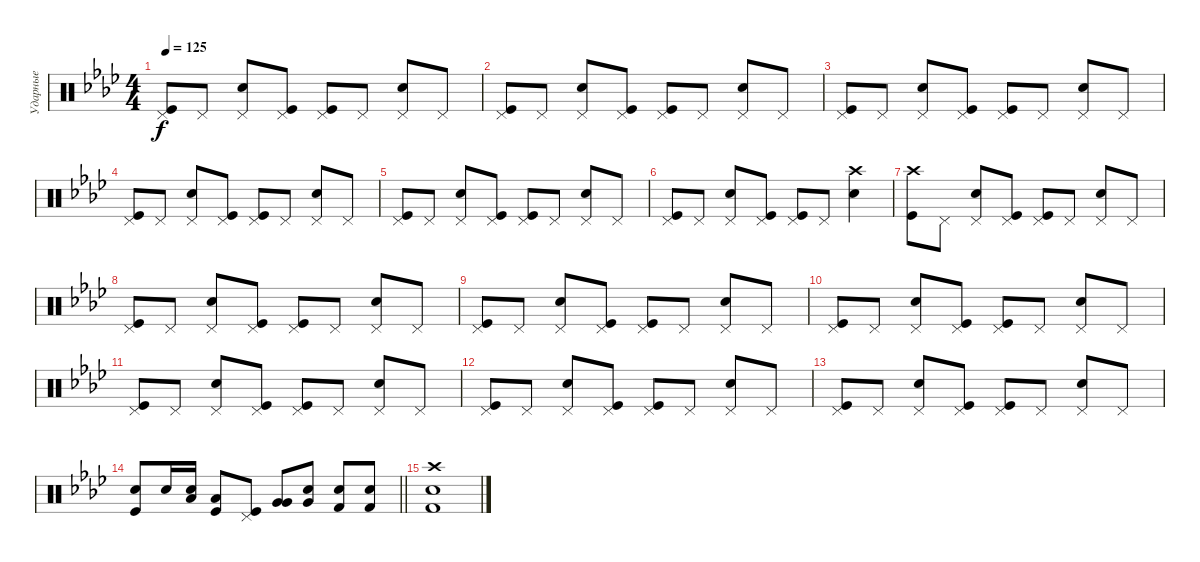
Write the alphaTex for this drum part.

\track ("Ударные" "Ударные") {solo instrument percussion}
\staff {score}
\articulation defaults
\ts (4 4)
\tempo 125
\clef neutral
\ks fminor
("Pedal Hi-Hat (hit)" "Kick (hit)").8{dy f} "Pedal Hi-Hat (hit)".8 ("Pedal Hi-Hat (hit)" "Electric Snare (hit)").8 ("Pedal Hi-Hat (hit)" "Kick (hit)").8 ("Pedal Hi-Hat (hit)" "Kick (hit)").8 "Pedal Hi-Hat (hit)".8 ("Pedal Hi-Hat (hit)" "Electric Snare (hit)").8 "Pedal Hi-Hat (hit)".8 |
("Pedal Hi-Hat (hit)" "Kick (hit)").8 "Pedal Hi-Hat (hit)".8 ("Pedal Hi-Hat (hit)" "Electric Snare (hit)").8 ("Pedal Hi-Hat (hit)" "Kick (hit)").8 ("Pedal Hi-Hat (hit)" "Kick (hit)").8 "Pedal Hi-Hat (hit)".8 ("Pedal Hi-Hat (hit)" "Electric Snare (hit)").8 "Pedal Hi-Hat (hit)".8 |
("Pedal Hi-Hat (hit)" "Kick (hit)").8 "Pedal Hi-Hat (hit)".8 ("Pedal Hi-Hat (hit)" "Electric Snare (hit)").8 ("Pedal Hi-Hat (hit)" "Kick (hit)").8 ("Pedal Hi-Hat (hit)" "Kick (hit)").8 "Pedal Hi-Hat (hit)".8 ("Pedal Hi-Hat (hit)" "Electric Snare (hit)").8 "Pedal Hi-Hat (hit)".8 |
("Pedal Hi-Hat (hit)" "Kick (hit)").8 "Pedal Hi-Hat (hit)".8 ("Pedal Hi-Hat (hit)" "Electric Snare (hit)").8 ("Pedal Hi-Hat (hit)" "Kick (hit)").8 ("Pedal Hi-Hat (hit)" "Kick (hit)").8 "Pedal Hi-Hat (hit)".8 ("Pedal Hi-Hat (hit)" "Electric Snare (hit)").8 "Pedal Hi-Hat (hit)".8 |
("Pedal Hi-Hat (hit)" "Kick (hit)").8 "Pedal Hi-Hat (hit)".8 ("Pedal Hi-Hat (hit)" "Electric Snare (hit)").8 ("Pedal Hi-Hat (hit)" "Kick (hit)").8 ("Pedal Hi-Hat (hit)" "Kick (hit)").8 "Pedal Hi-Hat (hit)".8 ("Pedal Hi-Hat (hit)" "Electric Snare (hit)").8 "Pedal Hi-Hat (hit)".8 |
("Pedal Hi-Hat (hit)" "Kick (hit)").8 "Pedal Hi-Hat (hit)".8 ("Pedal Hi-Hat (hit)" "Electric Snare (hit)").8 ("Pedal Hi-Hat (hit)" "Kick (hit)").8 ("Pedal Hi-Hat (hit)" "Kick (hit)").8 "Pedal Hi-Hat (hit)".8 ("Crash high (hit)" "Electric Snare (hit)").4 |
("Crash high (hit)" "Kick (hit)").8 "Pedal Hi-Hat (hit)".8 ("Pedal Hi-Hat (hit)" "Electric Snare (hit)").8 ("Pedal Hi-Hat (hit)" "Kick (hit)").8 ("Pedal Hi-Hat (hit)" "Kick (hit)").8 "Pedal Hi-Hat (hit)".8 ("Pedal Hi-Hat (hit)" "Electric Snare (hit)").8 "Pedal Hi-Hat (hit)".8 |
("Pedal Hi-Hat (hit)" "Kick (hit)").8 "Pedal Hi-Hat (hit)".8 ("Pedal Hi-Hat (hit)" "Electric Snare (hit)").8 ("Pedal Hi-Hat (hit)" "Kick (hit)").8 ("Pedal Hi-Hat (hit)" "Kick (hit)").8 "Pedal Hi-Hat (hit)".8 ("Pedal Hi-Hat (hit)" "Electric Snare (hit)").8 "Pedal Hi-Hat (hit)".8 |
("Pedal Hi-Hat (hit)" "Kick (hit)").8 "Pedal Hi-Hat (hit)".8 ("Pedal Hi-Hat (hit)" "Electric Snare (hit)").8 ("Pedal Hi-Hat (hit)" "Kick (hit)").8 ("Pedal Hi-Hat (hit)" "Kick (hit)").8 "Pedal Hi-Hat (hit)".8 ("Pedal Hi-Hat (hit)" "Electric Snare (hit)").8 "Pedal Hi-Hat (hit)".8 |
("Pedal Hi-Hat (hit)" "Kick (hit)").8 "Pedal Hi-Hat (hit)".8 ("Pedal Hi-Hat (hit)" "Electric Snare (hit)").8 ("Pedal Hi-Hat (hit)" "Kick (hit)").8 ("Pedal Hi-Hat (hit)" "Kick (hit)").8 "Pedal Hi-Hat (hit)".8 ("Pedal Hi-Hat (hit)" "Electric Snare (hit)").8 "Pedal Hi-Hat (hit)".8 |
("Pedal Hi-Hat (hit)" "Kick (hit)").8 "Pedal Hi-Hat (hit)".8 ("Pedal Hi-Hat (hit)" "Electric Snare (hit)").8 ("Pedal Hi-Hat (hit)" "Kick (hit)").8 ("Pedal Hi-Hat (hit)" "Kick (hit)").8 "Pedal Hi-Hat (hit)".8 ("Pedal Hi-Hat (hit)" "Electric Snare (hit)").8 "Pedal Hi-Hat (hit)".8 |
("Pedal Hi-Hat (hit)" "Kick (hit)").8 "Pedal Hi-Hat (hit)".8 ("Pedal Hi-Hat (hit)" "Electric Snare (hit)").8 ("Pedal Hi-Hat (hit)" "Kick (hit)").8 ("Pedal Hi-Hat (hit)" "Kick (hit)").8 "Pedal Hi-Hat (hit)".8 ("Pedal Hi-Hat (hit)" "Electric Snare (hit)").8 "Pedal Hi-Hat (hit)".8 |
("Pedal Hi-Hat (hit)" "Kick (hit)").8 "Pedal Hi-Hat (hit)".8 ("Pedal Hi-Hat (hit)" "Electric Snare (hit)").8 ("Pedal Hi-Hat (hit)" "Kick (hit)").8 ("Pedal Hi-Hat (hit)" "Kick (hit)").8 "Pedal Hi-Hat (hit)".8 ("Pedal Hi-Hat (hit)" "Electric Snare (hit)").8 "Pedal Hi-Hat (hit)".8 |
\barLineRight lightlight
("Snare (hit) 2" "Kick (hit)").8 "Snare (hit) 2".16 ("Low Floor Tom (hit)" "Electric Snare (hit)").16 ("Low Floor Tom (hit)" "Kick (hit)").8 ("Pedal Hi-Hat (hit)" "Kick (hit)").8 ("Very Low Tom (hit)" "Very Low Tom (hit)").8 ("Very Low Tom (hit)" "Electric Snare (hit)").8 ("Snare (hit) 2" "Kick (hit) 2").8 ("Snare (hit) 2" "Kick (hit) 2").8 |
("Crash high (hit)" "Electric Snare (hit)" "Kick (hit) 2").1
